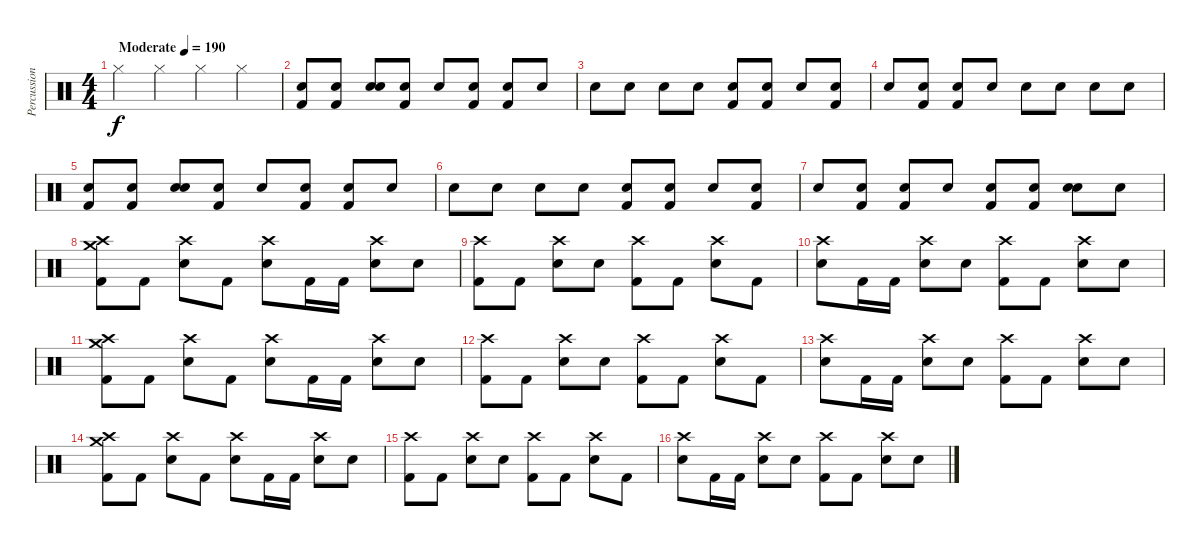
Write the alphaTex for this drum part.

\track ("Percussion" "Percussion") {instrument percussion}
\staff {score}
\articulation defaults
\ts (4 4)
\tempo (190 "Moderate")
\clef neutral
\ks c "Hi-Hat (closed)".4{dy f} "Hi-Hat (closed)".4 "Hi-Hat (closed)".4 "Hi-Hat (closed)".4
|
("Snare (hit) 2" "Kick (hit) 2").8 ("Snare (hit) 2" "Kick (hit) 2").8 ("Snare (hit)" "Snare (hit)").8 ("Snare (hit) 2" "Kick (hit) 2").8 "Snare (hit)".8 ("Snare (hit) 2" "Kick (hit) 2").8 ("Snare (hit) 2" "Kick (hit) 2").8 "Snare (hit)".8 |
"Snare (hit)".8 "Snare (hit)".8 "Snare (hit)".8 "Snare (hit)".8 ("Snare (hit) 2" "Kick (hit) 2").8 ("Snare (hit) 2" "Kick (hit) 2").8 "Snare (hit)".8 ("Snare (hit) 2" "Kick (hit) 2").8 |
"Snare (hit)".8 ("Snare (hit) 2" "Kick (hit) 2").8 ("Snare (hit) 2" "Kick (hit) 2").8 "Snare (hit)".8 "Snare (hit)".8 "Snare (hit)".8 "Snare (hit)".8 "Snare (hit)".8 |
("Snare (hit) 2" "Kick (hit) 2").8 ("Snare (hit) 2" "Kick (hit) 2").8 ("Snare (hit)" "Snare (hit)").8 ("Snare (hit) 2" "Kick (hit) 2").8 "Snare (hit)".8 ("Snare (hit) 2" "Kick (hit) 2").8 ("Snare (hit) 2" "Kick (hit) 2").8 "Snare (hit)".8 |
"Snare (hit)".8 "Snare (hit)".8 "Snare (hit)".8 "Snare (hit)".8 ("Snare (hit) 2" "Kick (hit) 2").8 ("Snare (hit) 2" "Kick (hit) 2").8 "Snare (hit)".8 ("Snare (hit) 2" "Kick (hit) 2").8 |
"Snare (hit)".8 ("Snare (hit) 2" "Kick (hit) 2").8 ("Snare (hit) 2" "Kick (hit) 2").8 "Snare (hit)".8 ("Kick (hit) 2" "Snare (hit)").8 ("Kick (hit) 2" "Snare (hit)").8 ("Snare (hit) 2" "Snare (hit)").8 "Snare (hit)".8 |
("Crash high (hit)" "Crash medium (hit)" "Kick (hit) 2").8 "Kick (hit) 2".8 ("Crash high (hit)" "Snare (hit)").8 "Kick (hit) 2".8 ("Crash high (hit)" "Snare (hit)").8 "Kick (hit) 2".16 "Kick (hit) 2".16 ("Crash high (hit)" "Snare (hit) 2").8 "Snare (hit)".8 |
("Crash high (hit)" "Kick (hit) 2").8 "Kick (hit) 2".8 ("Crash high (hit)" "Snare (hit) 2").8 "Snare (hit)".8 ("Crash high (hit)" "Kick (hit) 2").8 "Kick (hit) 2".8 ("Crash high (hit)" "Snare (hit)").8 "Kick (hit) 2".8 |
("Crash high (hit)" "Snare (hit)").8 "Kick (hit) 2".16 "Kick (hit) 2".16 ("Crash high (hit)" "Snare (hit) 2").8 "Snare (hit)".8 ("Crash high (hit)" "Kick (hit) 2").8 "Kick (hit) 2".8 ("Crash high (hit)" "Snare (hit) 2").8 "Snare (hit)".8 |
("Crash high (hit)" "Crash medium (hit)" "Kick (hit) 2").8 "Kick (hit) 2".8 ("Crash high (hit)" "Snare (hit)").8 "Kick (hit) 2".8 ("Crash high (hit)" "Snare (hit)").8 "Kick (hit) 2".16 "Kick (hit) 2".16 ("Crash high (hit)" "Snare (hit) 2").8 "Snare (hit)".8 |
("Crash high (hit)" "Kick (hit) 2").8 "Kick (hit) 2".8 ("Crash high (hit)" "Snare (hit) 2").8 "Snare (hit)".8 ("Crash high (hit)" "Kick (hit) 2").8 "Kick (hit) 2".8 ("Crash high (hit)" "Snare (hit)").8 "Kick (hit) 2".8 |
("Crash high (hit)" "Snare (hit)").8 "Kick (hit) 2".16 "Kick (hit) 2".16 ("Crash high (hit)" "Snare (hit) 2").8 "Snare (hit)".8 ("Crash high (hit)" "Kick (hit) 2").8 "Kick (hit) 2".8 ("Crash high (hit)" "Snare (hit) 2").8 "Snare (hit)".8 |
("Crash high (hit)" "Crash medium (hit)" "Kick (hit) 2").8 "Kick (hit) 2".8 ("Crash high (hit)" "Snare (hit)").8 "Kick (hit) 2".8 ("Crash high (hit)" "Snare (hit)").8 "Kick (hit) 2".16 "Kick (hit) 2".16 ("Crash high (hit)" "Snare (hit) 2").8 "Snare (hit)".8 |
("Crash high (hit)" "Kick (hit) 2").8 "Kick (hit) 2".8 ("Crash high (hit)" "Snare (hit) 2").8 "Snare (hit)".8 ("Crash high (hit)" "Kick (hit) 2").8 "Kick (hit) 2".8 ("Crash high (hit)" "Snare (hit)").8 "Kick (hit) 2".8 |
("Crash high (hit)" "Snare (hit)").8 "Kick (hit) 2".16 "Kick (hit) 2".16 ("Crash high (hit)" "Snare (hit) 2").8 "Snare (hit)".8 ("Crash high (hit)" "Kick (hit) 2").8 "Kick (hit) 2".8 ("Crash high (hit)" "Snare (hit) 2").8 "Snare (hit)".8
